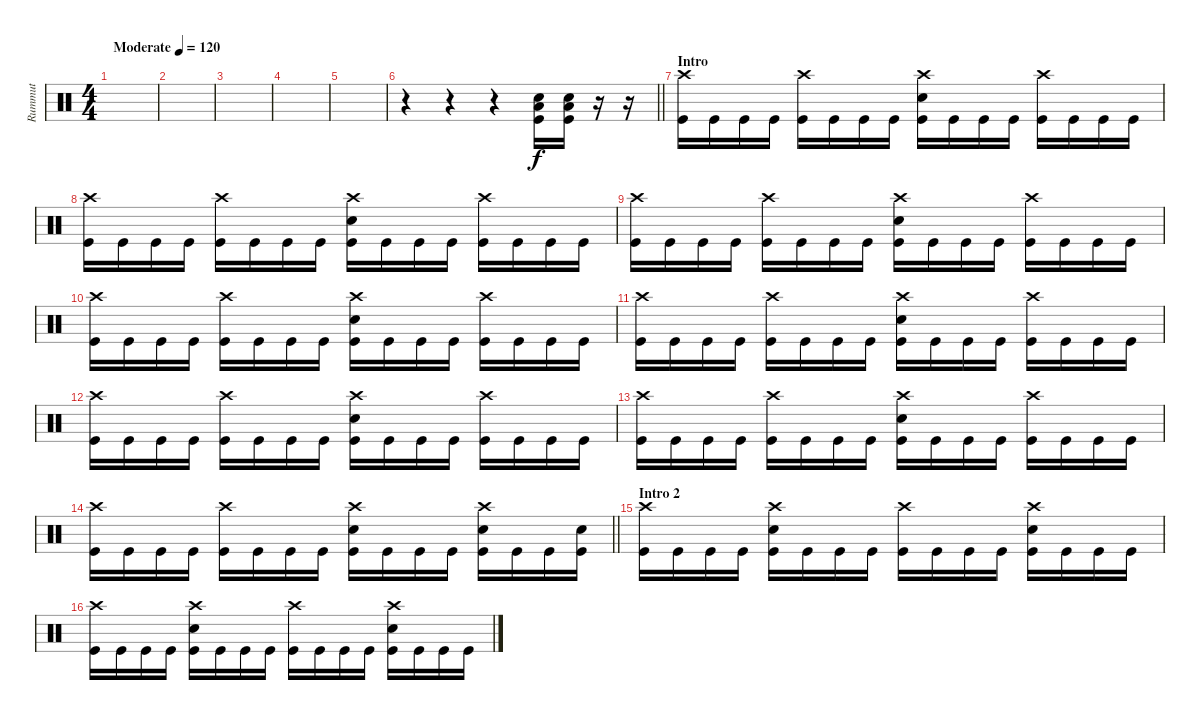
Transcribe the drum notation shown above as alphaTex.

\track ("Rummut" "Rummut") {instrument percussion}
\staff {score}
\articulation defaults
\ts (4 4)
\tempo (120 "Moderate")
\clef neutral
\ks c
|
|
|
|
|
\barLineRight lightlight
r.4 r.4 r.4 ("Low Tom (hit)" "Kick (hit)" "Snare (hit) 2").16 ("Low Tom (hit)" "Kick (hit)" "Snare (hit) 2").16 r.16 r.16 |
\section ("" "Intro")
("Crash high (hit)" "Kick (hit)").16 "Kick (hit)".16 "Kick (hit)".16 "Kick (hit)".16 ("Crash high (hit)" "Kick (hit)").16 "Kick (hit)".16 "Kick (hit)".16 "Kick (hit)".16 ("Crash high (hit)" "Snare (hit) 2" "Kick (hit)").16 "Kick (hit)".16 "Kick (hit)".16 "Kick (hit)".16 ("Crash high (hit)" "Kick (hit)").16 "Kick (hit)".16 "Kick (hit)".16 "Kick (hit)".16 |
("Crash high (hit)" "Kick (hit)").16 "Kick (hit)".16 "Kick (hit)".16 "Kick (hit)".16 ("Crash high (hit)" "Kick (hit)").16 "Kick (hit)".16 "Kick (hit)".16 "Kick (hit)".16 ("Crash high (hit)" "Snare (hit) 2" "Kick (hit)").16 "Kick (hit)".16 "Kick (hit)".16 "Kick (hit)".16 ("Crash high (hit)" "Kick (hit)").16 "Kick (hit)".16 "Kick (hit)".16 "Kick (hit)".16 |
("Crash high (hit)" "Kick (hit)").16 "Kick (hit)".16 "Kick (hit)".16 "Kick (hit)".16 ("Crash high (hit)" "Kick (hit)").16 "Kick (hit)".16 "Kick (hit)".16 "Kick (hit)".16 ("Crash high (hit)" "Snare (hit) 2" "Kick (hit)").16 "Kick (hit)".16 "Kick (hit)".16 "Kick (hit)".16 ("Crash high (hit)" "Kick (hit)").16 "Kick (hit)".16 "Kick (hit)".16 "Kick (hit)".16 |
("Crash high (hit)" "Kick (hit)").16 "Kick (hit)".16 "Kick (hit)".16 "Kick (hit)".16 ("Crash high (hit)" "Kick (hit)").16 "Kick (hit)".16 "Kick (hit)".16 "Kick (hit)".16 ("Crash high (hit)" "Snare (hit) 2" "Kick (hit)").16 "Kick (hit)".16 "Kick (hit)".16 "Kick (hit)".16 ("Crash high (hit)" "Kick (hit)").16 "Kick (hit)".16 "Kick (hit)".16 "Kick (hit)".16 |
("Crash high (hit)" "Kick (hit)").16 "Kick (hit)".16 "Kick (hit)".16 "Kick (hit)".16 ("Crash high (hit)" "Kick (hit)").16 "Kick (hit)".16 "Kick (hit)".16 "Kick (hit)".16 ("Crash high (hit)" "Snare (hit) 2" "Kick (hit)").16 "Kick (hit)".16 "Kick (hit)".16 "Kick (hit)".16 ("Crash high (hit)" "Kick (hit)").16 "Kick (hit)".16 "Kick (hit)".16 "Kick (hit)".16 |
("Crash high (hit)" "Kick (hit)").16 "Kick (hit)".16 "Kick (hit)".16 "Kick (hit)".16 ("Crash high (hit)" "Kick (hit)").16 "Kick (hit)".16 "Kick (hit)".16 "Kick (hit)".16 ("Crash high (hit)" "Snare (hit) 2" "Kick (hit)").16 "Kick (hit)".16 "Kick (hit)".16 "Kick (hit)".16 ("Crash high (hit)" "Kick (hit)").16 "Kick (hit)".16 "Kick (hit)".16 "Kick (hit)".16 |
("Crash high (hit)" "Kick (hit)").16 "Kick (hit)".16 "Kick (hit)".16 "Kick (hit)".16 ("Crash high (hit)" "Kick (hit)").16 "Kick (hit)".16 "Kick (hit)".16 "Kick (hit)".16 ("Crash high (hit)" "Snare (hit) 2" "Kick (hit)").16 "Kick (hit)".16 "Kick (hit)".16 "Kick (hit)".16 ("Crash high (hit)" "Kick (hit)").16 "Kick (hit)".16 "Kick (hit)".16 "Kick (hit)".16 |
\barLineRight lightlight
("Crash high (hit)" "Kick (hit)").16 "Kick (hit)".16 "Kick (hit)".16 "Kick (hit)".16 ("Crash high (hit)" "Kick (hit)").16 "Kick (hit)".16 "Kick (hit)".16 "Kick (hit)".16 ("Crash high (hit)" "Snare (hit) 2" "Kick (hit)").16 "Kick (hit)".16 "Kick (hit)".16 "Kick (hit)".16 ("Crash high (hit)" "Snare (hit) 2" "Kick (hit)").16 "Kick (hit)".16 "Kick (hit)".16 ("Snare (hit) 2" "Kick (hit)").16 |
\section ("" "Intro 2")
("Crash high (hit)" "Kick (hit)").16 "Kick (hit)".16 "Kick (hit)".16 "Kick (hit)".16 ("Crash high (hit)" "Snare (hit) 2" "Kick (hit)").16 "Kick (hit)".16 "Kick (hit)".16 "Kick (hit)".16 ("Crash high (hit)" "Kick (hit)").16 "Kick (hit)".16 "Kick (hit)".16 "Kick (hit)".16 ("Crash high (hit)" "Snare (hit) 2" "Kick (hit)").16 "Kick (hit)".16 "Kick (hit)".16 "Kick (hit)".16 |
("Crash high (hit)" "Kick (hit)").16 "Kick (hit)".16 "Kick (hit)".16 "Kick (hit)".16 ("Crash high (hit)" "Snare (hit) 2" "Kick (hit)").16 "Kick (hit)".16 "Kick (hit)".16 "Kick (hit)".16 ("Crash high (hit)" "Kick (hit)").16 "Kick (hit)".16 "Kick (hit)".16 "Kick (hit)".16 ("Crash high (hit)" "Snare (hit) 2" "Kick (hit)").16 "Kick (hit)".16 "Kick (hit)".16 "Kick (hit)".16
